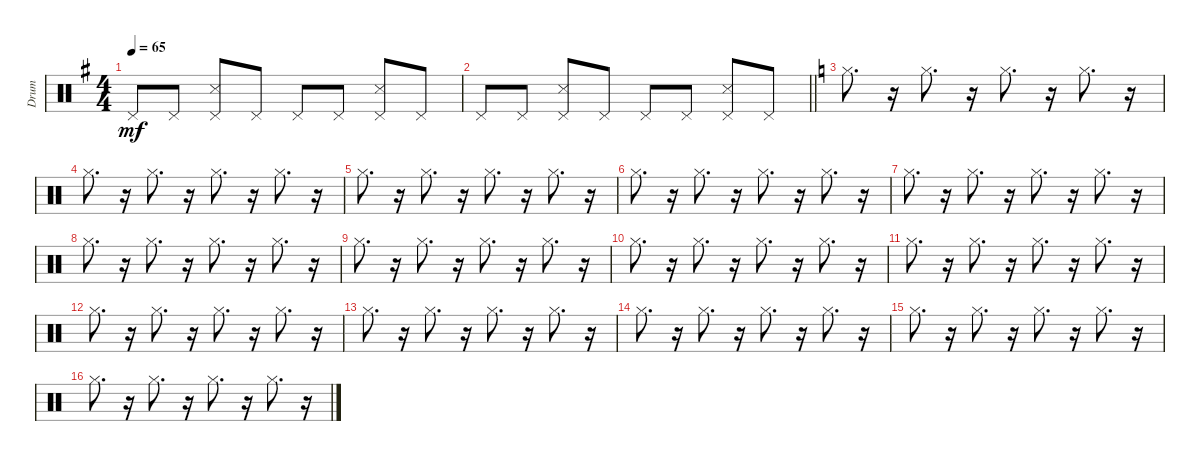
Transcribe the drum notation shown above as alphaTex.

\track ("Drum" "Drum") {instrument percussion}
\staff {score}
\articulation defaults
\ts (4 4)
\tempo 65
\clef neutral
\ks eminor "Pedal Hi-Hat (hit)".8{dy mf} "Pedal Hi-Hat (hit)".8
("Pedal Hi-Hat (hit)" "Snare (side stick) 3").8 "Pedal Hi-Hat (hit)".8 "Pedal Hi-Hat (hit)".8 "Pedal Hi-Hat (hit)".8 ("Pedal Hi-Hat (hit)" "Snare (side stick) 3").8 "Pedal Hi-Hat (hit)".8 |
\barLineRight lightlight "Pedal Hi-Hat (hit)".8 "Pedal Hi-Hat (hit)".8
("Pedal Hi-Hat (hit)" "Snare (side stick) 3").8 "Pedal Hi-Hat (hit)".8 "Pedal Hi-Hat (hit)".8 "Pedal Hi-Hat (hit)".8 ("Pedal Hi-Hat (hit)" "Snare (side stick) 3").8 "Pedal Hi-Hat (hit)".8 |
\ks c "Hi-Hat (closed)".8{d}
r.16 "Hi-Hat (closed)".8{d} r.16 "Hi-Hat (closed)".8{d} r.16 "Hi-Hat (closed)".8{d} r.16 |
"Hi-Hat (closed)".8{d} r.16 "Hi-Hat (closed)".8{d} r.16 "Hi-Hat (closed)".8{d} r.16 "Hi-Hat (closed)".8{d} r.16 |
"Hi-Hat (closed)".8{d} r.16 "Hi-Hat (closed)".8{d} r.16 "Hi-Hat (closed)".8{d} r.16 "Hi-Hat (closed)".8{d} r.16 |
"Hi-Hat (closed)".8{d} r.16 "Hi-Hat (closed)".8{d} r.16 "Hi-Hat (closed)".8{d} r.16 "Hi-Hat (closed)".8{d} r.16 |
"Hi-Hat (closed)".8{d} r.16 "Hi-Hat (closed)".8{d} r.16 "Hi-Hat (closed)".8{d} r.16 "Hi-Hat (closed)".8{d} r.16 |
"Hi-Hat (closed)".8{d} r.16 "Hi-Hat (closed)".8{d} r.16 "Hi-Hat (closed)".8{d} r.16 "Hi-Hat (closed)".8{d} r.16 |
"Hi-Hat (closed)".8{d} r.16 "Hi-Hat (closed)".8{d} r.16 "Hi-Hat (closed)".8{d} r.16 "Hi-Hat (closed)".8{d} r.16 |
"Hi-Hat (closed)".8{d} r.16 "Hi-Hat (closed)".8{d} r.16 "Hi-Hat (closed)".8{d} r.16 "Hi-Hat (closed)".8{d} r.16 |
"Hi-Hat (closed)".8{d} r.16 "Hi-Hat (closed)".8{d} r.16 "Hi-Hat (closed)".8{d} r.16 "Hi-Hat (closed)".8{d} r.16 |
"Hi-Hat (closed)".8{d} r.16 "Hi-Hat (closed)".8{d} r.16 "Hi-Hat (closed)".8{d} r.16 "Hi-Hat (closed)".8{d} r.16 |
"Hi-Hat (closed)".8{d} r.16 "Hi-Hat (closed)".8{d} r.16 "Hi-Hat (closed)".8{d} r.16 "Hi-Hat (closed)".8{d} r.16 |
"Hi-Hat (closed)".8{d} r.16 "Hi-Hat (closed)".8{d} r.16 "Hi-Hat (closed)".8{d} r.16 "Hi-Hat (closed)".8{d} r.16 |
"Hi-Hat (closed)".8{d} r.16 "Hi-Hat (closed)".8{d} r.16 "Hi-Hat (closed)".8{d} r.16 "Hi-Hat (closed)".8{d} r.16 |
"Hi-Hat (closed)".8{d} r.16 "Hi-Hat (closed)".8{d} r.16 "Hi-Hat (closed)".8{d} r.16 "Hi-Hat (closed)".8{d} r.16
